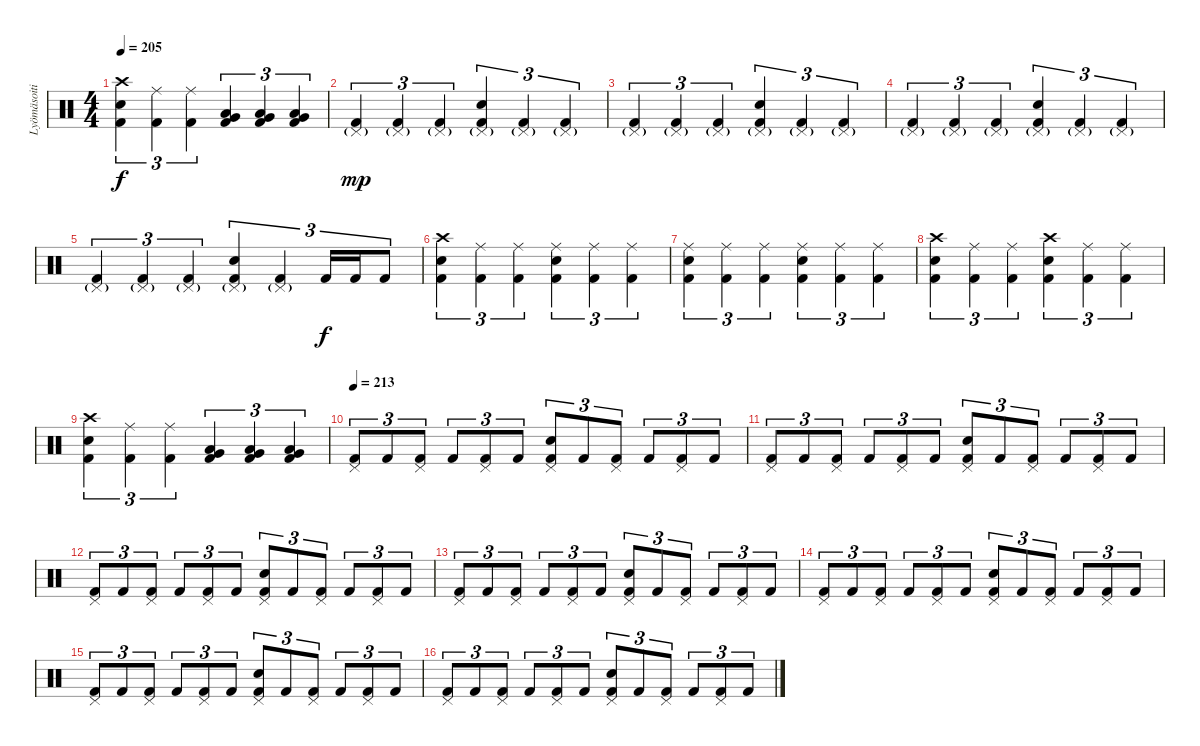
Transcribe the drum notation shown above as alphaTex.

\track ("Lyömäsoitin" "Lyömäsoiti") {instrument percussion}
\staff {score}
\articulation defaults
\ts (4 4)
\tempo 205
\clef neutral
\ks c
("Crash high (hit)" "Electric Snare (hit)" "Kick (hit) 2").4{tu (3 2) dy f} ("Ride (middle)" "Kick (hit) 2").4{tu (3 2)} ("Ride (middle)" "Kick (hit) 2").4{tu (3 2)} ("Low Tom (hit)" "Very Low Tom (hit)" "Kick (hit) 2").4{tu (3 2)} ("Very Low Tom (hit)" "Low Floor Tom (hit)" "Kick (hit) 2").4{tu (3 2)} ("Very Low Tom (hit)" "Low Floor Tom (hit)" "Kick (hit) 2").4{tu (3 2)} |
("Pedal Hi-Hat (hit)"{g} "Kick (hit) 2").4{tu (3 2) dy mp} ("Pedal Hi-Hat (hit)"{g} "Kick (hit) 2").4{tu (3 2)} ("Pedal Hi-Hat (hit)"{g} "Kick (hit) 2").4{tu (3 2)} ("Pedal Hi-Hat (hit)"{g} "Electric Snare (hit)" "Kick (hit) 2").4{tu (3 2)} ("Pedal Hi-Hat (hit)"{g} "Kick (hit) 2").4{tu (3 2)} ("Pedal Hi-Hat (hit)"{g} "Kick (hit) 2").4{tu (3 2)} |
("Pedal Hi-Hat (hit)"{g} "Kick (hit) 2").4{tu (3 2)} ("Pedal Hi-Hat (hit)"{g} "Kick (hit) 2").4{tu (3 2)} ("Pedal Hi-Hat (hit)"{g} "Kick (hit) 2").4{tu (3 2)} ("Pedal Hi-Hat (hit)"{g} "Electric Snare (hit)" "Kick (hit) 2").4{tu (3 2)} ("Pedal Hi-Hat (hit)"{g} "Kick (hit) 2").4{tu (3 2)} ("Pedal Hi-Hat (hit)"{g} "Kick (hit) 2").4{tu (3 2)} |
("Pedal Hi-Hat (hit)"{g} "Kick (hit) 2").4{tu (3 2)} ("Pedal Hi-Hat (hit)"{g} "Kick (hit) 2").4{tu (3 2)} ("Pedal Hi-Hat (hit)"{g} "Kick (hit) 2").4{tu (3 2)} ("Pedal Hi-Hat (hit)"{g} "Electric Snare (hit)" "Kick (hit) 2").4{tu (3 2)} ("Pedal Hi-Hat (hit)"{g} "Kick (hit) 2").4{tu (3 2)} ("Pedal Hi-Hat (hit)"{g} "Kick (hit) 2").4{tu (3 2)} |
("Pedal Hi-Hat (hit)"{g} "Kick (hit) 2").4{tu (3 2)} ("Pedal Hi-Hat (hit)"{g} "Kick (hit) 2").4{tu (3 2)} ("Pedal Hi-Hat (hit)"{g} "Kick (hit) 2").4{tu (3 2)} ("Pedal Hi-Hat (hit)"{g} "Electric Snare (hit)" "Kick (hit) 2").4{tu (3 2)} ("Pedal Hi-Hat (hit)"{g} "Kick (hit) 2").4{tu (3 2)} "Kick (hit) 2".16{tu (3 2) dy f} "Kick (hit) 2".16{tu (3 2)} "Kick (hit) 2".8{tu (3 2)} |
("Crash high (hit)" "Electric Snare (hit)" "Kick (hit) 2").4{tu (3 2)} ("Ride (middle)" "Kick (hit) 2").4{tu (3 2)} ("Ride (middle)" "Kick (hit) 2").4{tu (3 2)} ("Ride (middle)" "Electric Snare (hit)" "Kick (hit) 2").4{tu (3 2)} ("Ride (middle)" "Kick (hit) 2").4{tu (3 2)} ("Ride (middle)" "Kick (hit) 2").4{tu (3 2)} |
("Ride (middle)" "Electric Snare (hit)" "Kick (hit) 2").4{tu (3 2)} ("Ride (middle)" "Kick (hit) 2").4{tu (3 2)} ("Ride (middle)" "Kick (hit) 2").4{tu (3 2)} ("Ride (middle)" "Electric Snare (hit)" "Kick (hit) 2").4{tu (3 2)} ("Ride (middle)" "Kick (hit) 2").4{tu (3 2)} ("Ride (middle)" "Kick (hit) 2").4{tu (3 2)} |
("Crash high (hit)" "Electric Snare (hit)" "Kick (hit) 2").4{tu (3 2)} ("Ride (middle)" "Kick (hit) 2").4{tu (3 2)} ("Ride (middle)" "Kick (hit) 2").4{tu (3 2)} ("Crash high (hit)" "Electric Snare (hit)" "Kick (hit) 2").4{tu (3 2)} ("Ride (middle)" "Kick (hit) 2").4{tu (3 2)} ("Ride (middle)" "Kick (hit) 2").4{tu (3 2)} |
("Crash high (hit)" "Electric Snare (hit)" "Kick (hit) 2").4{tu (3 2)} ("Ride (middle)" "Kick (hit) 2").4{tu (3 2)} ("Ride (middle)" "Kick (hit) 2").4{tu (3 2)} ("Low Tom (hit)" "Very Low Tom (hit)" "Kick (hit) 2").4{tu (3 2)} ("Very Low Tom (hit)" "Low Floor Tom (hit)" "Kick (hit) 2").4{tu (3 2)} ("Very Low Tom (hit)" "Low Floor Tom (hit)" "Kick (hit) 2").4{tu (3 2)} |
\tempo 213
("Pedal Hi-Hat (hit)" "Kick (hit) 2").8{tu (3 2)} "Kick (hit) 2".8{tu (3 2)} ("Pedal Hi-Hat (hit)" "Kick (hit) 2").8{tu (3 2)} "Kick (hit) 2".8{tu (3 2)} ("Pedal Hi-Hat (hit)" "Kick (hit) 2").8{tu (3 2)} "Kick (hit) 2".8{tu (3 2)} ("Pedal Hi-Hat (hit)" "Electric Snare (hit)" "Kick (hit) 2").8{tu (3 2)} "Kick (hit) 2".8{tu (3 2)} ("Pedal Hi-Hat (hit)" "Kick (hit) 2").8{tu (3 2)} "Kick (hit) 2".8{tu (3 2)} ("Pedal Hi-Hat (hit)" "Kick (hit) 2").8{tu (3 2)} "Kick (hit) 2".8{tu (3 2)} |
("Pedal Hi-Hat (hit)" "Kick (hit) 2").8{tu (3 2)} "Kick (hit) 2".8{tu (3 2)} ("Pedal Hi-Hat (hit)" "Kick (hit) 2").8{tu (3 2)} "Kick (hit) 2".8{tu (3 2)} ("Pedal Hi-Hat (hit)" "Kick (hit) 2").8{tu (3 2)} "Kick (hit) 2".8{tu (3 2)} ("Pedal Hi-Hat (hit)" "Electric Snare (hit)" "Kick (hit) 2").8{tu (3 2)} "Kick (hit) 2".8{tu (3 2)} ("Pedal Hi-Hat (hit)" "Kick (hit) 2").8{tu (3 2)} "Kick (hit) 2".8{tu (3 2)} ("Pedal Hi-Hat (hit)" "Kick (hit) 2").8{tu (3 2)} "Kick (hit) 2".8{tu (3 2)} |
("Pedal Hi-Hat (hit)" "Kick (hit) 2").8{tu (3 2)} "Kick (hit) 2".8{tu (3 2)} ("Pedal Hi-Hat (hit)" "Kick (hit) 2").8{tu (3 2)} "Kick (hit) 2".8{tu (3 2)} ("Pedal Hi-Hat (hit)" "Kick (hit) 2").8{tu (3 2)} "Kick (hit) 2".8{tu (3 2)} ("Pedal Hi-Hat (hit)" "Electric Snare (hit)" "Kick (hit) 2").8{tu (3 2)} "Kick (hit) 2".8{tu (3 2)} ("Pedal Hi-Hat (hit)" "Kick (hit) 2").8{tu (3 2)} "Kick (hit) 2".8{tu (3 2)} ("Pedal Hi-Hat (hit)" "Kick (hit) 2").8{tu (3 2)} "Kick (hit) 2".8{tu (3 2)} |
("Pedal Hi-Hat (hit)" "Kick (hit) 2").8{tu (3 2)} "Kick (hit) 2".8{tu (3 2)} ("Pedal Hi-Hat (hit)" "Kick (hit) 2").8{tu (3 2)} "Kick (hit) 2".8{tu (3 2)} ("Pedal Hi-Hat (hit)" "Kick (hit) 2").8{tu (3 2)} "Kick (hit) 2".8{tu (3 2)} ("Pedal Hi-Hat (hit)" "Electric Snare (hit)" "Kick (hit) 2").8{tu (3 2)} "Kick (hit) 2".8{tu (3 2)} ("Pedal Hi-Hat (hit)" "Kick (hit) 2").8{tu (3 2)} "Kick (hit) 2".8{tu (3 2)} ("Pedal Hi-Hat (hit)" "Kick (hit) 2").8{tu (3 2)} "Kick (hit) 2".8{tu (3 2)} |
("Pedal Hi-Hat (hit)" "Kick (hit) 2").8{tu (3 2)} "Kick (hit) 2".8{tu (3 2)} ("Pedal Hi-Hat (hit)" "Kick (hit) 2").8{tu (3 2)} "Kick (hit) 2".8{tu (3 2)} ("Pedal Hi-Hat (hit)" "Kick (hit) 2").8{tu (3 2)} "Kick (hit) 2".8{tu (3 2)} ("Pedal Hi-Hat (hit)" "Electric Snare (hit)" "Kick (hit) 2").8{tu (3 2)} "Kick (hit) 2".8{tu (3 2)} ("Pedal Hi-Hat (hit)" "Kick (hit) 2").8{tu (3 2)} "Kick (hit) 2".8{tu (3 2)} ("Pedal Hi-Hat (hit)" "Kick (hit) 2").8{tu (3 2)} "Kick (hit) 2".8{tu (3 2)} |
("Pedal Hi-Hat (hit)" "Kick (hit) 2").8{tu (3 2)} "Kick (hit) 2".8{tu (3 2)} ("Pedal Hi-Hat (hit)" "Kick (hit) 2").8{tu (3 2)} "Kick (hit) 2".8{tu (3 2)} ("Pedal Hi-Hat (hit)" "Kick (hit) 2").8{tu (3 2)} "Kick (hit) 2".8{tu (3 2)} ("Pedal Hi-Hat (hit)" "Electric Snare (hit)" "Kick (hit) 2").8{tu (3 2)} "Kick (hit) 2".8{tu (3 2)} ("Pedal Hi-Hat (hit)" "Kick (hit) 2").8{tu (3 2)} "Kick (hit) 2".8{tu (3 2)} ("Pedal Hi-Hat (hit)" "Kick (hit) 2").8{tu (3 2)} "Kick (hit) 2".8{tu (3 2)} |
("Pedal Hi-Hat (hit)" "Kick (hit) 2").8{tu (3 2)} "Kick (hit) 2".8{tu (3 2)} ("Pedal Hi-Hat (hit)" "Kick (hit) 2").8{tu (3 2)} "Kick (hit) 2".8{tu (3 2)} ("Pedal Hi-Hat (hit)" "Kick (hit) 2").8{tu (3 2)} "Kick (hit) 2".8{tu (3 2)} ("Pedal Hi-Hat (hit)" "Electric Snare (hit)" "Kick (hit) 2").8{tu (3 2)} "Kick (hit) 2".8{tu (3 2)} ("Pedal Hi-Hat (hit)" "Kick (hit) 2").8{tu (3 2)} "Kick (hit) 2".8{tu (3 2)} ("Pedal Hi-Hat (hit)" "Kick (hit) 2").8{tu (3 2)} "Kick (hit) 2".8{tu (3 2)}
